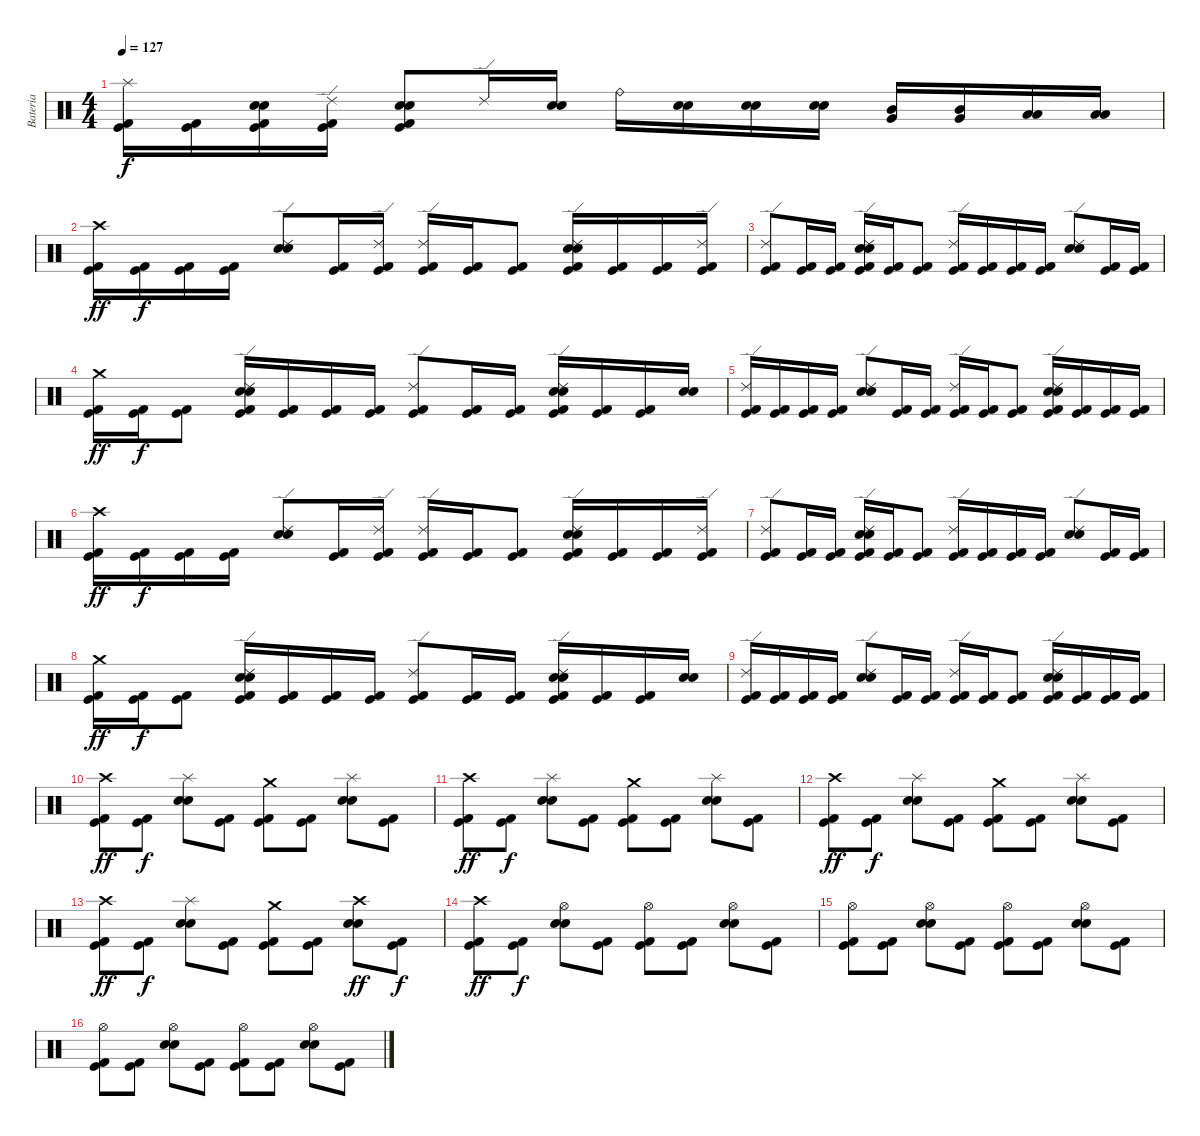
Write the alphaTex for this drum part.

\track ("Bateria" "Bateria") {instrument percussion}
\staff {score}
\articulation defaults
\ts (4 4)
\tempo 127
\clef neutral
\ks c
("Splash (hit)" "Kick (hit) 2" "Kick (hit)").16{dy f} ("Kick (hit) 2" "Kick (hit)").16 ("Electric Snare (hit)" "Snare (hit) 2" "Kick (hit) 2" "Kick (hit)").16 ("Ride (edge) 2" "Kick (hit) 2" "Kick (hit)").16 ("Electric Snare (hit)" "Snare (hit) 2" "Kick (hit) 2" "Kick (hit)").8 "Ride (edge) 2".16 ("Electric Snare (hit)" "Snare (hit) 2").16 "Ride (bell)".16 ("Electric Snare (hit)" "Snare (hit) 2").16 ("Electric Snare (hit)" "Snare (hit) 2").16 ("Electric Snare (hit)" "Snare (hit) 2").16 ("Mid Tom (hit)" "Very Low Tom (hit)").16 ("Mid Tom (hit)" "Very Low Tom (hit)").16 ("Low Tom (hit)" "Low Floor Tom (hit)").16 ("Low Tom (hit)" "Low Floor Tom (hit)").16 |
("Crash high (hit)" "Kick (hit) 2" "Kick (hit)").16{dy ff} ("Kick (hit) 2" "Kick (hit)").16{dy f} ("Kick (hit) 2" "Kick (hit)").16 ("Kick (hit) 2" "Kick (hit)").16 ("Ride (edge) 2" "Electric Snare (hit)" "Snare (hit) 2").8 ("Kick (hit) 2" "Kick (hit)").16 ("Ride (edge) 2" "Kick (hit) 2" "Kick (hit)").16 ("Ride (edge) 2" "Kick (hit) 2" "Kick (hit)").16 ("Kick (hit) 2" "Kick (hit)").16 ("Kick (hit) 2" "Kick (hit)").8 ("Ride (edge) 2" "Electric Snare (hit)" "Snare (hit) 2" "Kick (hit) 2" "Kick (hit)").16 ("Kick (hit) 2" "Kick (hit)").16 ("Kick (hit) 2" "Kick (hit)").16 ("Ride (edge) 2" "Kick (hit) 2" "Kick (hit)").16 |
("Ride (edge) 2" "Kick (hit) 2" "Kick (hit)").8 ("Kick (hit) 2" "Kick (hit)").16 ("Kick (hit) 2" "Kick (hit)").16 ("Ride (edge) 2" "Electric Snare (hit)" "Snare (hit) 2" "Kick (hit) 2" "Kick (hit)").16 ("Kick (hit) 2" "Kick (hit)").16 ("Kick (hit) 2" "Kick (hit)").8 ("Ride (edge) 2" "Kick (hit) 2" "Kick (hit)").16 ("Kick (hit) 2" "Kick (hit)").16 ("Kick (hit) 2" "Kick (hit)").16 ("Kick (hit) 2" "Kick (hit)").16 ("Ride (edge) 2" "Electric Snare (hit)" "Snare (hit) 2").8 ("Kick (hit) 2" "Kick (hit)").16 ("Kick (hit) 2" "Kick (hit)").16 |
("Crash medium (hit)" "Kick (hit) 2" "Kick (hit)").16{dy ff} ("Kick (hit) 2" "Kick (hit)").16{dy f} ("Kick (hit) 2" "Kick (hit)").8 ("Ride (edge) 2" "Electric Snare (hit)" "Snare (hit) 2" "Kick (hit) 2" "Kick (hit)").16 ("Kick (hit) 2" "Kick (hit)").16 ("Kick (hit) 2" "Kick (hit)").16 ("Kick (hit) 2" "Kick (hit)").16 ("Ride (edge) 2" "Kick (hit) 2" "Kick (hit)").8 ("Kick (hit) 2" "Kick (hit)").16 ("Kick (hit) 2" "Kick (hit)").16 ("Ride (edge) 2" "Electric Snare (hit)" "Snare (hit) 2" "Kick (hit) 2" "Kick (hit)").16 ("Kick (hit) 2" "Kick (hit)").16 ("Kick (hit) 2" "Kick (hit)").16 ("Electric Snare (hit)" "Snare (hit) 2").16 |
("Ride (edge) 2" "Kick (hit) 2" "Kick (hit)").16 ("Kick (hit) 2" "Kick (hit)").16 ("Kick (hit) 2" "Kick (hit)").16 ("Kick (hit) 2" "Kick (hit)").16 ("Ride (edge) 2" "Electric Snare (hit)" "Snare (hit) 2").8 ("Kick (hit) 2" "Kick (hit)").16 ("Kick (hit) 2" "Kick (hit)").16 ("Ride (edge) 2" "Kick (hit) 2" "Kick (hit)").16 ("Kick (hit) 2" "Kick (hit)").16 ("Kick (hit) 2" "Kick (hit)").8 ("Ride (edge) 2" "Electric Snare (hit)" "Snare (hit) 2" "Kick (hit) 2" "Kick (hit)").16 ("Kick (hit) 2" "Kick (hit)").16 ("Kick (hit) 2" "Kick (hit)").16 ("Kick (hit) 2" "Kick (hit)").16 |
("Crash high (hit)" "Kick (hit) 2" "Kick (hit)").16{dy ff} ("Kick (hit) 2" "Kick (hit)").16{dy f} ("Kick (hit) 2" "Kick (hit)").16 ("Kick (hit) 2" "Kick (hit)").16 ("Ride (edge) 2" "Electric Snare (hit)" "Snare (hit) 2").8 ("Kick (hit) 2" "Kick (hit)").16 ("Ride (edge) 2" "Kick (hit) 2" "Kick (hit)").16 ("Ride (edge) 2" "Kick (hit) 2" "Kick (hit)").16 ("Kick (hit) 2" "Kick (hit)").16 ("Kick (hit) 2" "Kick (hit)").8 ("Ride (edge) 2" "Electric Snare (hit)" "Snare (hit) 2" "Kick (hit) 2" "Kick (hit)").16 ("Kick (hit) 2" "Kick (hit)").16 ("Kick (hit) 2" "Kick (hit)").16 ("Ride (edge) 2" "Kick (hit) 2" "Kick (hit)").16 |
("Ride (edge) 2" "Kick (hit) 2" "Kick (hit)").8 ("Kick (hit) 2" "Kick (hit)").16 ("Kick (hit) 2" "Kick (hit)").16 ("Ride (edge) 2" "Electric Snare (hit)" "Snare (hit) 2" "Kick (hit) 2" "Kick (hit)").16 ("Kick (hit) 2" "Kick (hit)").16 ("Kick (hit) 2" "Kick (hit)").8 ("Ride (edge) 2" "Kick (hit) 2" "Kick (hit)").16 ("Kick (hit) 2" "Kick (hit)").16 ("Kick (hit) 2" "Kick (hit)").16 ("Kick (hit) 2" "Kick (hit)").16 ("Ride (edge) 2" "Electric Snare (hit)" "Snare (hit) 2").8 ("Kick (hit) 2" "Kick (hit)").16 ("Kick (hit) 2" "Kick (hit)").16 |
("Crash medium (hit)" "Kick (hit) 2" "Kick (hit)").16{dy ff} ("Kick (hit) 2" "Kick (hit)").16{dy f} ("Kick (hit) 2" "Kick (hit)").8 ("Ride (edge) 2" "Electric Snare (hit)" "Snare (hit) 2" "Kick (hit) 2" "Kick (hit)").16 ("Kick (hit) 2" "Kick (hit)").16 ("Kick (hit) 2" "Kick (hit)").16 ("Kick (hit) 2" "Kick (hit)").16 ("Ride (edge) 2" "Kick (hit) 2" "Kick (hit)").8 ("Kick (hit) 2" "Kick (hit)").16 ("Kick (hit) 2" "Kick (hit)").16 ("Ride (edge) 2" "Electric Snare (hit)" "Snare (hit) 2" "Kick (hit) 2" "Kick (hit)").16 ("Kick (hit) 2" "Kick (hit)").16 ("Kick (hit) 2" "Kick (hit)").16 ("Electric Snare (hit)" "Snare (hit) 2").16 |
("Ride (edge) 2" "Kick (hit) 2" "Kick (hit)").16 ("Kick (hit) 2" "Kick (hit)").16 ("Kick (hit) 2" "Kick (hit)").16 ("Kick (hit) 2" "Kick (hit)").16 ("Ride (edge) 2" "Electric Snare (hit)" "Snare (hit) 2").8 ("Kick (hit) 2" "Kick (hit)").16 ("Kick (hit) 2" "Kick (hit)").16 ("Ride (edge) 2" "Kick (hit) 2" "Kick (hit)").16 ("Kick (hit) 2" "Kick (hit)").16 ("Kick (hit) 2" "Kick (hit)").8 ("Ride (edge) 2" "Electric Snare (hit)" "Snare (hit) 2" "Kick (hit) 2" "Kick (hit)").16 ("Kick (hit) 2" "Kick (hit)").16 ("Kick (hit) 2" "Kick (hit)").16 ("Kick (hit) 2" "Kick (hit)").16 |
("Crash high (hit)" "Kick (hit) 2" "Kick (hit)").8{dy ff} ("Kick (hit) 2" "Kick (hit)").8{dy f} ("Splash (hit)" "Electric Snare (hit)" "Snare (hit) 2").8 ("Kick (hit) 2" "Kick (hit)").8 ("Crash medium (hit)" "Kick (hit) 2" "Kick (hit)").8 ("Kick (hit) 2" "Kick (hit)").8 ("Splash (hit)" "Electric Snare (hit)" "Snare (hit) 2").8 ("Kick (hit) 2" "Kick (hit)").8 |
("Crash high (hit)" "Kick (hit) 2" "Kick (hit)").8{dy ff} ("Kick (hit) 2" "Kick (hit)").8{dy f} ("Splash (hit)" "Electric Snare (hit)" "Snare (hit) 2").8 ("Kick (hit) 2" "Kick (hit)").8 ("Crash medium (hit)" "Kick (hit) 2" "Kick (hit)").8 ("Kick (hit) 2" "Kick (hit)").8 ("Splash (hit)" "Electric Snare (hit)" "Snare (hit) 2").8 ("Kick (hit) 2" "Kick (hit)").8 |
("Crash high (hit)" "Kick (hit) 2" "Kick (hit)").8{dy ff} ("Kick (hit) 2" "Kick (hit)").8{dy f} ("Splash (hit)" "Electric Snare (hit)" "Snare (hit) 2").8 ("Kick (hit) 2" "Kick (hit)").8 ("Crash medium (hit)" "Kick (hit) 2" "Kick (hit)").8 ("Kick (hit) 2" "Kick (hit)").8 ("Splash (hit)" "Electric Snare (hit)" "Snare (hit) 2").8 ("Kick (hit) 2" "Kick (hit)").8 |
("Crash high (hit)" "Kick (hit) 2" "Kick (hit)").8{dy ff} ("Kick (hit) 2" "Kick (hit)").8{dy f} ("Splash (hit)" "Electric Snare (hit)" "Snare (hit) 2").8 ("Kick (hit) 2" "Kick (hit)").8 ("Crash medium (hit)" "Kick (hit) 2" "Kick (hit)").8 ("Kick (hit) 2" "Kick (hit)").8 ("Crash high (hit)" "Electric Snare (hit)" "Snare (hit) 2").8{dy ff} ("Kick (hit) 2" "Kick (hit)").8{dy f} |
("Crash high (hit)" "Kick (hit) 2" "Kick (hit)").8{dy ff} ("Kick (hit) 2" "Kick (hit)").8{dy f} ("Hi-Hat (open)" "Electric Snare (hit)" "Snare (hit) 2").8 ("Kick (hit) 2" "Kick (hit)").8 ("Hi-Hat (open)" "Kick (hit) 2" "Kick (hit)").8 ("Kick (hit) 2" "Kick (hit)").8 ("Hi-Hat (open)" "Electric Snare (hit)" "Snare (hit) 2").8 ("Kick (hit) 2" "Kick (hit)").8 |
("Hi-Hat (open)" "Kick (hit) 2" "Kick (hit)").8 ("Kick (hit) 2" "Kick (hit)").8 ("Hi-Hat (open)" "Electric Snare (hit)" "Snare (hit) 2").8 ("Kick (hit) 2" "Kick (hit)").8 ("Hi-Hat (open)" "Kick (hit) 2" "Kick (hit)").8 ("Kick (hit) 2" "Kick (hit)").8 ("Hi-Hat (open)" "Electric Snare (hit)" "Snare (hit) 2").8 ("Kick (hit) 2" "Kick (hit)").8 |
("Hi-Hat (open)" "Kick (hit) 2" "Kick (hit)").8 ("Kick (hit) 2" "Kick (hit)").8 ("Hi-Hat (open)" "Electric Snare (hit)" "Snare (hit) 2").8 ("Kick (hit) 2" "Kick (hit)").8 ("Hi-Hat (open)" "Kick (hit) 2" "Kick (hit)").8 ("Kick (hit) 2" "Kick (hit)").8 ("Hi-Hat (open)" "Electric Snare (hit)" "Snare (hit) 2").8 ("Kick (hit) 2" "Kick (hit)").8
